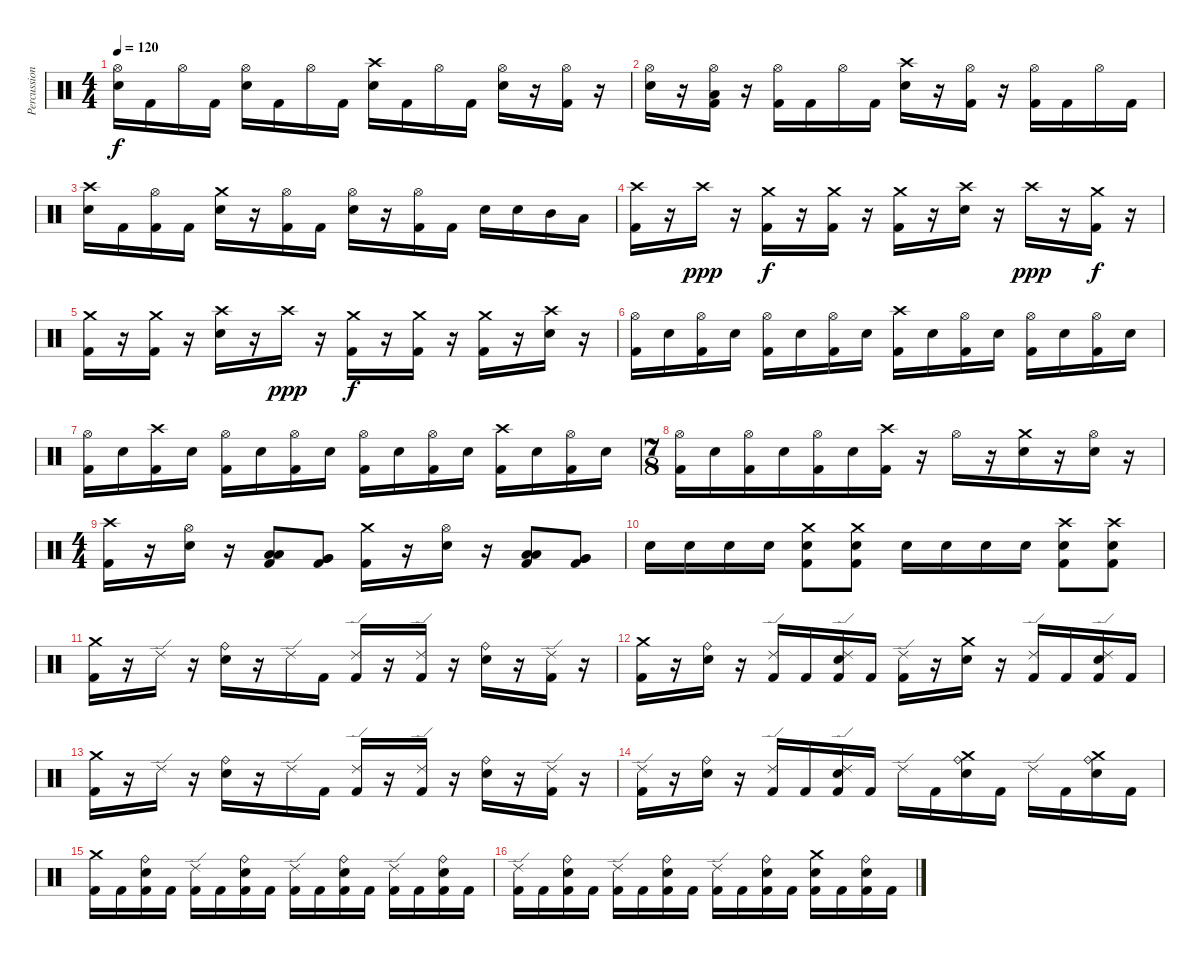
\track ("Percussion" "Percussion") {instrument percussion}
\staff {score}
\articulation defaults
\ts (4 4)
\tempo 120
\clef neutral
\ks c
("Hi-Hat (open)" "Snare (hit) 2").16{dy f} "Kick (hit) 2".16 "Hi-Hat (open)".16 "Kick (hit) 2".16 ("Hi-Hat (open)" "Snare (hit) 2").16 "Kick (hit) 2".16 "Hi-Hat (open)".16 "Kick (hit) 2".16 ("Crash high (hit)" "Snare (hit) 2").16 "Kick (hit) 2".16 "Hi-Hat (open)".16 "Kick (hit) 2".16 ("Hi-Hat (open)" "Snare (hit) 2").16 r.16 ("Hi-Hat (open)" "Kick (hit) 2").16 r.16 |
("Hi-Hat (open)" "Snare (hit) 2").16 r.16 ("Hi-Hat (open)" "Low Tom (hit)" "Kick (hit) 2").16 r.16 ("Hi-Hat (open)" "Kick (hit) 2").16 "Kick (hit) 2".16 "Hi-Hat (open)".16 "Kick (hit) 2".16 ("Crash high (hit)" "Snare (hit) 2").16 r.16 ("Hi-Hat (open)" "Kick (hit) 2").16 r.16 ("Hi-Hat (open)" "Kick (hit) 2").16 "Kick (hit) 2".16 "Hi-Hat (open)".16 "Kick (hit) 2".16 |
("Crash high (hit)" "Snare (hit) 2").16 "Kick (hit) 2".16 ("Hi-Hat (open)" "Kick (hit) 2").16 "Kick (hit) 2".16 ("Crash medium (hit)" "Snare (hit) 2").16 r.16 ("Hi-Hat (open)" "Kick (hit) 2").16 "Kick (hit) 2".16 ("Hi-Hat (open)" "Snare (hit) 2").16 r.16 ("Hi-Hat (open)" "Kick (hit) 2").16 "Kick (hit) 2".16 "Snare (hit) 2".16 "Snare (hit) 2".16 "Mid Tom (hit)".16 "Low Tom (hit)".16 |
("Crash high (hit)" "Kick (hit) 2").16 r.16 "Crash high (hit)".16{dy ppp} r.16 ("Crash medium (hit)" "Kick (hit) 2").16{dy f} r.16 ("Crash medium (hit)" "Kick (hit) 2").16 r.16 ("Crash medium (hit)" "Kick (hit) 2").16 r.16 ("Crash high (hit)" "Snare (hit) 2").16 r.16 "Crash high (hit)".16{dy ppp} r.16 ("Crash medium (hit)" "Kick (hit) 2").16{dy f} r.16 |
("Crash medium (hit)" "Kick (hit) 2").16 r.16 ("Crash medium (hit)" "Kick (hit) 2").16 r.16 ("Crash high (hit)" "Snare (hit) 2").16 r.16 "Crash high (hit)".16{dy ppp} r.16 ("Crash medium (hit)" "Kick (hit) 2").16{dy f} r.16 ("Crash medium (hit)" "Kick (hit) 2").16 r.16 ("Crash medium (hit)" "Kick (hit) 2").16 r.16 ("Crash high (hit)" "Snare (hit) 2").16 r.16 |
("Hi-Hat (open)" "Kick (hit) 2").16 "Snare (hit) 2".16 ("Hi-Hat (open)" "Kick (hit) 2").16 "Snare (hit) 2".16 ("Hi-Hat (open)" "Kick (hit) 2").16 "Snare (hit) 2".16 ("Hi-Hat (open)" "Kick (hit) 2").16 "Snare (hit) 2".16 ("Crash high (hit)" "Kick (hit) 2").16 "Snare (hit) 2".16 ("Hi-Hat (open)" "Kick (hit) 2").16 "Snare (hit) 2".16 ("Hi-Hat (open)" "Kick (hit) 2").16 "Snare (hit) 2".16 ("Hi-Hat (open)" "Kick (hit) 2").16 "Snare (hit) 2".16 |
("Hi-Hat (open)" "Kick (hit) 2").16 "Snare (hit) 2".16 ("Crash high (hit)" "Kick (hit) 2").16 "Snare (hit) 2".16 ("Hi-Hat (open)" "Kick (hit) 2").16 "Snare (hit) 2".16 ("Hi-Hat (open)" "Kick (hit) 2").16 "Snare (hit) 2".16 ("Hi-Hat (open)" "Kick (hit) 2").16 "Snare (hit) 2".16 ("Hi-Hat (open)" "Kick (hit) 2").16 "Snare (hit) 2".16 ("Crash high (hit)" "Kick (hit) 2").16 "Snare (hit) 2".16 ("Hi-Hat (open)" "Kick (hit) 2").16 "Snare (hit) 2".16 |
\ts (7 8)
("Hi-Hat (open)" "Kick (hit) 2").16 "Snare (hit) 2".16 ("Hi-Hat (open)" "Kick (hit) 2").16 "Snare (hit) 2".16 ("Hi-Hat (open)" "Kick (hit) 2").16 "Snare (hit) 2".16 ("Crash high (hit)" "Kick (hit) 2").16 r.16 "Hi-Hat (open)".16 r.16 ("Crash medium (hit)" "Snare (hit) 2").16 r.16 ("Hi-Hat (open)" "Snare (hit) 2").16 r.16 |
\ts (4 4)
("Crash high (hit)" "Kick (hit) 2").16 r.16 ("Hi-Hat (open)" "Snare (hit) 2").16 r.16 ("Low Tom (hit)" "Low Tom (hit)" "Kick (hit) 2").8 ("Very Low Tom (hit)" "Very Low Tom (hit)" "Kick (hit) 2").8 ("Crash medium (hit)" "Kick (hit) 2").16 r.16 ("Hi-Hat (open)" "Snare (hit) 2").16 r.16 ("Low Tom (hit)" "Low Tom (hit)" "Kick (hit) 2").8 ("Very Low Tom (hit)" "Very Low Tom (hit)" "Kick (hit) 2").8 |
"Snare (hit) 2".16 "Snare (hit) 2".16 "Snare (hit) 2".16 "Snare (hit) 2".16 ("Crash medium (hit)" "Snare (hit) 2" "Kick (hit) 2").8 ("Crash medium (hit)" "Snare (hit) 2" "Kick (hit) 2").8 "Snare (hit) 2".16 "Snare (hit) 2".16 "Snare (hit) 2".16 "Snare (hit) 2".16 ("Crash high (hit)" "Snare (hit) 2" "Kick (hit) 2").8 ("Crash high (hit)" "Snare (hit) 2" "Kick (hit) 2").8 |
("Crash medium (hit)" "Kick (hit) 2").16 r.16 "Ride (edge) 2".16 r.16 ("Ride (bell)" "Snare (hit) 2").16 r.16 "Ride (edge) 2".16 "Kick (hit) 2".16 ("Ride (edge) 2" "Kick (hit) 2").16 r.16 ("Ride (edge) 2" "Kick (hit) 2").16 r.16 ("Ride (bell)" "Snare (hit) 2").16 r.16 ("Ride (edge) 2" "Kick (hit) 2").16 r.16 |
("Crash medium (hit)" "Kick (hit) 2").16 r.16 ("Ride (bell)" "Snare (hit) 2").16 r.16 ("Ride (edge) 2" "Kick (hit) 2").16 "Kick (hit) 2".16 ("Ride (edge) 2" "Snare (hit) 2" "Kick (hit) 2").16 "Kick (hit) 2".16 ("Ride (edge) 2" "Kick (hit) 2").16 r.16 ("Crash medium (hit)" "Snare (hit) 2").16 r.16 ("Ride (edge) 2" "Kick (hit) 2").16 "Kick (hit) 2".16 ("Ride (edge) 2" "Snare (hit) 2" "Kick (hit) 2").16 "Kick (hit) 2".16 |
("Crash medium (hit)" "Kick (hit) 2").16 r.16 "Ride (edge) 2".16 r.16 ("Ride (bell)" "Snare (hit) 2").16 r.16 "Ride (edge) 2".16 "Kick (hit) 2".16 ("Ride (edge) 2" "Kick (hit) 2").16 r.16 ("Ride (edge) 2" "Kick (hit) 2").16 r.16 ("Ride (bell)" "Snare (hit) 2").16 r.16 ("Ride (edge) 2" "Kick (hit) 2").16 r.16 |
("Ride (edge) 2" "Kick (hit) 2").16 r.16 ("Ride (bell)" "Snare (hit) 2").16 r.16 ("Ride (edge) 2" "Kick (hit) 2").16 "Kick (hit) 2".16 ("Ride (edge) 2" "Snare (hit) 2" "Kick (hit) 2").16 "Kick (hit) 2".16 "Ride (edge) 2".16 "Kick (hit) 2".16 ("Crash medium (hit)" "Ride (bell)" "Snare (hit) 2").16 "Kick (hit) 2".16 "Ride (edge) 2".16 "Kick (hit) 2".16 ("Crash medium (hit)" "Ride (bell)" "Snare (hit) 2").16 "Kick (hit) 2".16 |
("Crash medium (hit)" "Kick (hit) 2").16 "Kick (hit) 2".16 ("Ride (bell)" "Snare (hit) 2" "Kick (hit) 2").16 "Kick (hit) 2".16 ("Ride (edge) 2" "Kick (hit) 2").16 "Kick (hit) 2".16 ("Ride (bell)" "Snare (hit) 2" "Kick (hit) 2").16 "Kick (hit) 2".16 ("Ride (edge) 2" "Kick (hit) 2").16 "Kick (hit) 2".16 ("Ride (bell)" "Snare (hit) 2" "Kick (hit) 2").16 "Kick (hit) 2".16 ("Ride (edge) 2" "Kick (hit) 2").16 "Kick (hit) 2".16 ("Ride (bell)" "Snare (hit) 2" "Kick (hit) 2").16 "Kick (hit) 2".16 |
("Ride (edge) 2" "Kick (hit) 2").16 "Kick (hit) 2".16 ("Ride (bell)" "Snare (hit) 2" "Kick (hit) 2").16 "Kick (hit) 2".16 ("Ride (edge) 2" "Kick (hit) 2").16 "Kick (hit) 2".16 ("Ride (bell)" "Snare (hit) 2" "Kick (hit) 2").16 "Kick (hit) 2".16 ("Ride (edge) 2" "Kick (hit) 2").16 "Kick (hit) 2".16 ("Ride (bell)" "Snare (hit) 2" "Kick (hit) 2").16 "Kick (hit) 2".16 ("Crash medium (hit)" "Snare (hit) 2" "Kick (hit) 2").16 "Kick (hit) 2".16 ("Ride (bell)" "Snare (hit) 2" "Kick (hit) 2").16 "Kick (hit) 2".16
